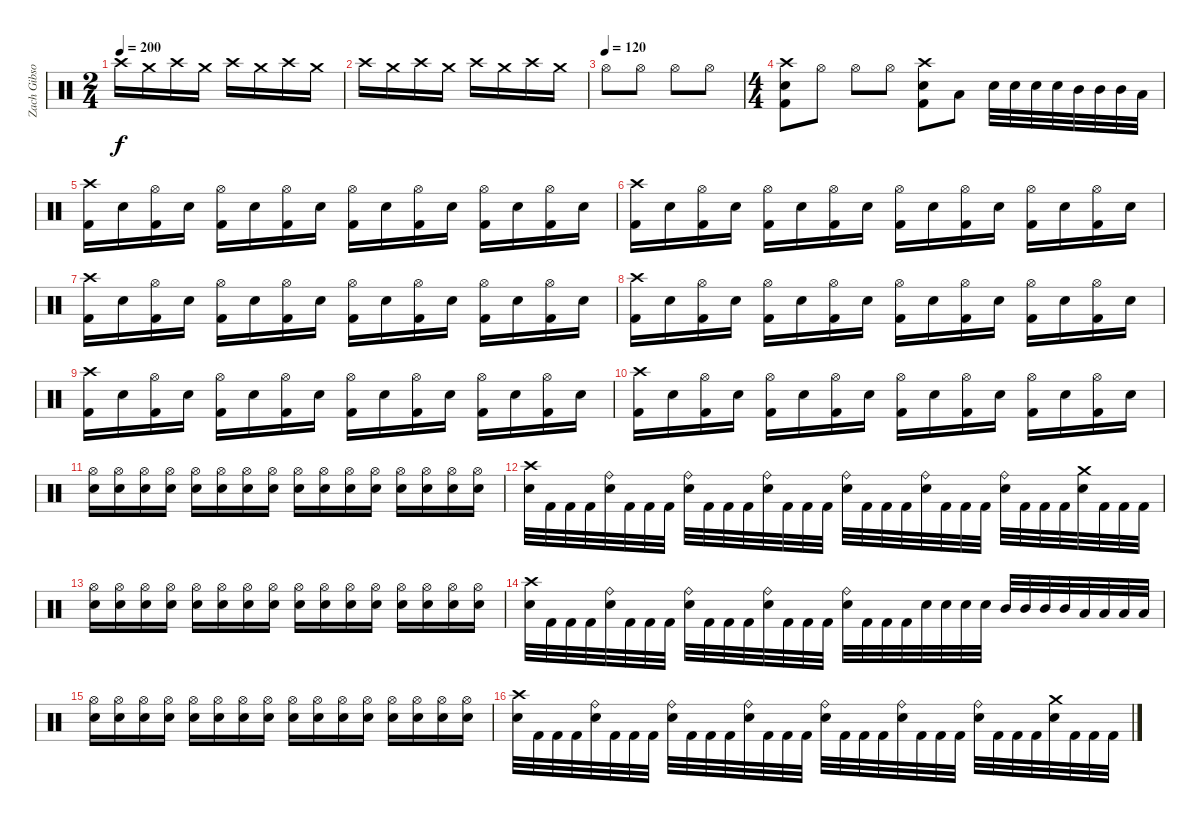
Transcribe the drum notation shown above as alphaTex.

\track ("Zach Gibson" "Zach Gibso") {instrument percussion}
\staff {score}
\articulation defaults
\ts (2 4)
\tempo 200
\clef neutral
\ks c "Crash high (hit)".16{dy f} "Crash medium (hit)".16 "Crash high (hit)".16 "Crash medium (hit)".16 "Crash high (hit)".16 "Crash medium (hit)".16 "Crash high (hit)".16 "Crash medium (hit)".16
|
"Crash high (hit)".16 "Crash medium (hit)".16 "Crash high (hit)".16 "Crash medium (hit)".16 "Crash high (hit)".16 "Crash medium (hit)".16 "Crash high (hit)".16 "Crash medium (hit)".16 |
\tempo (120)
"Hi-Hat (open)".8 "Hi-Hat (open)".8 "Hi-Hat (open)".8 "Hi-Hat (open)".8 |
\ts (4 4)
("Crash high (hit)" "Electric Snare (hit)" "Kick (hit) 2").8 "Hi-Hat (open)".8 "Hi-Hat (open)".8 "Hi-Hat (open)".8 ("Crash high (hit)" "Electric Snare (hit)" "Kick (hit) 2").8 "Low Tom (hit)".8 "Electric Snare (hit)".32 "Electric Snare (hit)".32 "Electric Snare (hit)".32 "Electric Snare (hit)".32 "Mid Tom (hit)".32 "Mid Tom (hit)".32 "Mid Tom (hit)".32 "Low Tom (hit)".32 |
("Crash high (hit)" "Kick (hit) 2").16 "Electric Snare (hit)".16 ("Hi-Hat (open)" "Kick (hit) 2").16 "Electric Snare (hit)".16 ("Hi-Hat (open)" "Kick (hit) 2").16 "Electric Snare (hit)".16 ("Hi-Hat (open)" "Kick (hit) 2").16 "Electric Snare (hit)".16 ("Hi-Hat (open)" "Kick (hit) 2").16 "Electric Snare (hit)".16 ("Hi-Hat (open)" "Kick (hit) 2").16 "Electric Snare (hit)".16 ("Hi-Hat (open)" "Kick (hit) 2").16 "Electric Snare (hit)".16 ("Hi-Hat (open)" "Kick (hit) 2").16 "Electric Snare (hit)".16 |
("Crash high (hit)" "Kick (hit) 2").16 "Electric Snare (hit)".16 ("Hi-Hat (open)" "Kick (hit) 2").16 "Electric Snare (hit)".16 ("Hi-Hat (open)" "Kick (hit) 2").16 "Electric Snare (hit)".16 ("Hi-Hat (open)" "Kick (hit) 2").16 "Electric Snare (hit)".16 ("Hi-Hat (open)" "Kick (hit) 2").16 "Electric Snare (hit)".16 ("Hi-Hat (open)" "Kick (hit) 2").16 "Electric Snare (hit)".16 ("Hi-Hat (open)" "Kick (hit) 2").16 "Electric Snare (hit)".16 ("Hi-Hat (open)" "Kick (hit) 2").16 "Electric Snare (hit)".16 |
("Crash high (hit)" "Kick (hit) 2").16 "Electric Snare (hit)".16 ("Hi-Hat (open)" "Kick (hit) 2").16 "Electric Snare (hit)".16 ("Hi-Hat (open)" "Kick (hit) 2").16 "Electric Snare (hit)".16 ("Hi-Hat (open)" "Kick (hit) 2").16 "Electric Snare (hit)".16 ("Hi-Hat (open)" "Kick (hit) 2").16 "Electric Snare (hit)".16 ("Hi-Hat (open)" "Kick (hit) 2").16 "Electric Snare (hit)".16 ("Hi-Hat (open)" "Kick (hit) 2").16 "Electric Snare (hit)".16 ("Hi-Hat (open)" "Kick (hit) 2").16 "Electric Snare (hit)".16 |
("Crash high (hit)" "Kick (hit) 2").16 "Electric Snare (hit)".16 ("Hi-Hat (open)" "Kick (hit) 2").16 "Electric Snare (hit)".16 ("Hi-Hat (open)" "Kick (hit) 2").16 "Electric Snare (hit)".16 ("Hi-Hat (open)" "Kick (hit) 2").16 "Electric Snare (hit)".16 ("Hi-Hat (open)" "Kick (hit) 2").16 "Electric Snare (hit)".16 ("Hi-Hat (open)" "Kick (hit) 2").16 "Electric Snare (hit)".16 ("Hi-Hat (open)" "Kick (hit) 2").16 "Electric Snare (hit)".16 ("Hi-Hat (open)" "Kick (hit) 2").16 "Electric Snare (hit)".16 |
("Crash high (hit)" "Kick (hit) 2").16 "Electric Snare (hit)".16 ("Hi-Hat (open)" "Kick (hit) 2").16 "Electric Snare (hit)".16 ("Hi-Hat (open)" "Kick (hit) 2").16 "Electric Snare (hit)".16 ("Hi-Hat (open)" "Kick (hit) 2").16 "Electric Snare (hit)".16 ("Hi-Hat (open)" "Kick (hit) 2").16 "Electric Snare (hit)".16 ("Hi-Hat (open)" "Kick (hit) 2").16 "Electric Snare (hit)".16 ("Hi-Hat (open)" "Kick (hit) 2").16 "Electric Snare (hit)".16 ("Hi-Hat (open)" "Kick (hit) 2").16 "Electric Snare (hit)".16 |
("Crash high (hit)" "Kick (hit) 2").16 "Electric Snare (hit)".16 ("Hi-Hat (open)" "Kick (hit) 2").16 "Electric Snare (hit)".16 ("Hi-Hat (open)" "Kick (hit) 2").16 "Electric Snare (hit)".16 ("Hi-Hat (open)" "Kick (hit) 2").16 "Electric Snare (hit)".16 ("Hi-Hat (open)" "Kick (hit) 2").16 "Electric Snare (hit)".16 ("Hi-Hat (open)" "Kick (hit) 2").16 "Electric Snare (hit)".16 ("Hi-Hat (open)" "Kick (hit) 2").16 "Electric Snare (hit)".16 ("Hi-Hat (open)" "Kick (hit) 2").16 "Electric Snare (hit)".16 |
("Hi-Hat (open)" "Electric Snare (hit)").16 ("Hi-Hat (open)" "Electric Snare (hit)").16 ("Hi-Hat (open)" "Electric Snare (hit)").16 ("Hi-Hat (open)" "Electric Snare (hit)").16 ("Hi-Hat (open)" "Electric Snare (hit)").16 ("Hi-Hat (open)" "Electric Snare (hit)").16 ("Hi-Hat (open)" "Electric Snare (hit)").16 ("Hi-Hat (open)" "Electric Snare (hit)").16 ("Hi-Hat (open)" "Electric Snare (hit)").16 ("Hi-Hat (open)" "Electric Snare (hit)").16 ("Hi-Hat (open)" "Electric Snare (hit)").16 ("Hi-Hat (open)" "Electric Snare (hit)").16 ("Hi-Hat (open)" "Electric Snare (hit)").16 ("Hi-Hat (open)" "Electric Snare (hit)").16 ("Hi-Hat (open)" "Electric Snare (hit)").16 ("Hi-Hat (open)" "Electric Snare (hit)").16 |
("Crash high (hit)" "Electric Snare (hit)").32 "Kick (hit) 2".32 "Kick (hit) 2".32 "Kick (hit) 2".32 ("Ride (bell)" "Electric Snare (hit)").32 "Kick (hit) 2".32 "Kick (hit) 2".32 "Kick (hit) 2".32 ("Ride (bell)" "Electric Snare (hit)").32 "Kick (hit) 2".32 "Kick (hit) 2".32 "Kick (hit) 2".32 ("Ride (bell)" "Electric Snare (hit)").32 "Kick (hit) 2".32 "Kick (hit) 2".32 "Kick (hit) 2".32 ("Ride (bell)" "Electric Snare (hit)").32 "Kick (hit) 2".32 "Kick (hit) 2".32 "Kick (hit) 2".32 ("Ride (bell)" "Electric Snare (hit)").32 "Kick (hit) 2".32 "Kick (hit) 2".32 "Kick (hit) 2".32 ("Ride (bell)" "Electric Snare (hit)").32 "Kick (hit) 2".32 "Kick (hit) 2".32 "Kick (hit) 2".32 ("Crash medium (hit)" "Electric Snare (hit)").32 "Kick (hit) 2".32 "Kick (hit) 2".32 "Kick (hit) 2".32 |
("Hi-Hat (open)" "Electric Snare (hit)").16 ("Hi-Hat (open)" "Electric Snare (hit)").16 ("Hi-Hat (open)" "Electric Snare (hit)").16 ("Hi-Hat (open)" "Electric Snare (hit)").16 ("Hi-Hat (open)" "Electric Snare (hit)").16 ("Hi-Hat (open)" "Electric Snare (hit)").16 ("Hi-Hat (open)" "Electric Snare (hit)").16 ("Hi-Hat (open)" "Electric Snare (hit)").16 ("Hi-Hat (open)" "Electric Snare (hit)").16 ("Hi-Hat (open)" "Electric Snare (hit)").16 ("Hi-Hat (open)" "Electric Snare (hit)").16 ("Hi-Hat (open)" "Electric Snare (hit)").16 ("Hi-Hat (open)" "Electric Snare (hit)").16 ("Hi-Hat (open)" "Electric Snare (hit)").16 ("Hi-Hat (open)" "Electric Snare (hit)").16 ("Hi-Hat (open)" "Electric Snare (hit)").16 |
("Crash high (hit)" "Electric Snare (hit)").32 "Kick (hit) 2".32 "Kick (hit) 2".32 "Kick (hit) 2".32 ("Ride (bell)" "Electric Snare (hit)").32 "Kick (hit) 2".32 "Kick (hit) 2".32 "Kick (hit) 2".32 ("Ride (bell)" "Electric Snare (hit)").32 "Kick (hit) 2".32 "Kick (hit) 2".32 "Kick (hit) 2".32 ("Ride (bell)" "Electric Snare (hit)").32 "Kick (hit) 2".32 "Kick (hit) 2".32 "Kick (hit) 2".32 ("Ride (bell)" "Electric Snare (hit)").32 "Kick (hit) 2".32 "Kick (hit) 2".32 "Kick (hit) 2".32 "Electric Snare (hit)".32 "Electric Snare (hit)".32 "Electric Snare (hit)".32 "Electric Snare (hit)".32 "Mid Tom (hit)".32 "Mid Tom (hit)".32 "Mid Tom (hit)".32 "Mid Tom (hit)".32 "Low Tom (hit)".32 "Low Tom (hit)".32 "Low Tom (hit)".32 "Low Tom (hit)".32 |
("Hi-Hat (open)" "Electric Snare (hit)").16 ("Hi-Hat (open)" "Electric Snare (hit)").16 ("Hi-Hat (open)" "Electric Snare (hit)").16 ("Hi-Hat (open)" "Electric Snare (hit)").16 ("Hi-Hat (open)" "Electric Snare (hit)").16 ("Hi-Hat (open)" "Electric Snare (hit)").16 ("Hi-Hat (open)" "Electric Snare (hit)").16 ("Hi-Hat (open)" "Electric Snare (hit)").16 ("Hi-Hat (open)" "Electric Snare (hit)").16 ("Hi-Hat (open)" "Electric Snare (hit)").16 ("Hi-Hat (open)" "Electric Snare (hit)").16 ("Hi-Hat (open)" "Electric Snare (hit)").16 ("Hi-Hat (open)" "Electric Snare (hit)").16 ("Hi-Hat (open)" "Electric Snare (hit)").16 ("Hi-Hat (open)" "Electric Snare (hit)").16 ("Hi-Hat (open)" "Electric Snare (hit)").16 |
("Crash high (hit)" "Electric Snare (hit)").32 "Kick (hit) 2".32 "Kick (hit) 2".32 "Kick (hit) 2".32 ("Ride (bell)" "Electric Snare (hit)").32 "Kick (hit) 2".32 "Kick (hit) 2".32 "Kick (hit) 2".32 ("Ride (bell)" "Electric Snare (hit)").32 "Kick (hit) 2".32 "Kick (hit) 2".32 "Kick (hit) 2".32 ("Ride (bell)" "Electric Snare (hit)").32 "Kick (hit) 2".32 "Kick (hit) 2".32 "Kick (hit) 2".32 ("Ride (bell)" "Electric Snare (hit)").32 "Kick (hit) 2".32 "Kick (hit) 2".32 "Kick (hit) 2".32 ("Ride (bell)" "Electric Snare (hit)").32 "Kick (hit) 2".32 "Kick (hit) 2".32 "Kick (hit) 2".32 ("Ride (bell)" "Electric Snare (hit)").32 "Kick (hit) 2".32 "Kick (hit) 2".32 "Kick (hit) 2".32 ("Crash medium (hit)" "Electric Snare (hit)").32 "Kick (hit) 2".32 "Kick (hit) 2".32 "Kick (hit) 2".32
